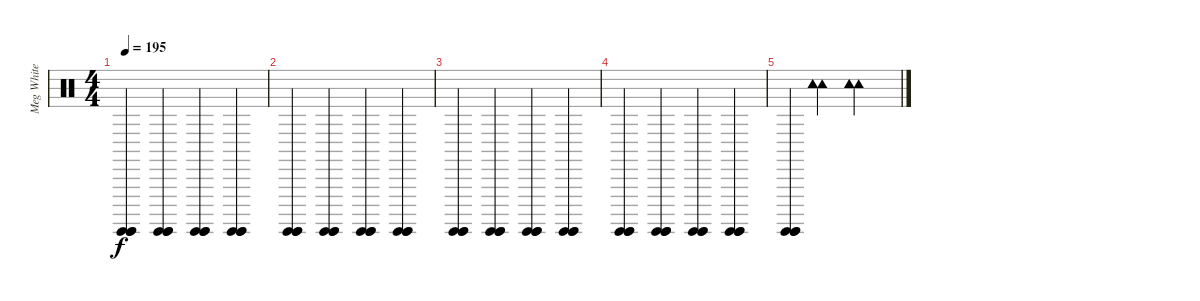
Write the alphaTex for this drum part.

\track ("Meg White" "Meg White") {instrument percussion}
\staff {score}
\articulation defaults
\ts (4 4)
\tempo 195
\clef neutral
\ks c
("Surdo (hit)" "Surdo (hit)" "Surdo (hit)").4{dy f} ("Surdo (hit)" "Surdo (hit)" "Surdo (hit)").4 ("Surdo (hit)" "Surdo (hit)" "Surdo (hit)").4 ("Surdo (hit)" "Surdo (hit)" "Surdo (hit)").4 |
("Surdo (hit)" "Surdo (hit)" "Surdo (hit)").4 ("Surdo (hit)" "Surdo (hit)" "Surdo (hit)").4 ("Surdo (hit)" "Surdo (hit)" "Surdo (hit)").4 ("Surdo (hit)" "Surdo (hit)" "Surdo (hit)").4 |
("Surdo (hit)" "Surdo (hit)" "Surdo (hit)").4 ("Surdo (hit)" "Surdo (hit)" "Surdo (hit)").4 ("Surdo (hit)" "Surdo (hit)" "Surdo (hit)").4 ("Surdo (hit)" "Surdo (hit)" "Surdo (hit)").4 |
("Surdo (hit)" "Surdo (hit)" "Surdo (hit)").4 ("Surdo (hit)" "Surdo (hit)" "Surdo (hit)").4 ("Surdo (hit)" "Surdo (hit)" "Surdo (hit)").4 ("Surdo (hit)" "Surdo (hit)" "Surdo (hit)").4 |
("Surdo (hit)" "Surdo (hit)" "Surdo (hit)").4 ("Tambourine (hit)" "Tambourine (hit)" "Tambourine (hit)").4 ("Tambourine (hit)" "Tambourine (hit)" "Tambourine (hit)").2
